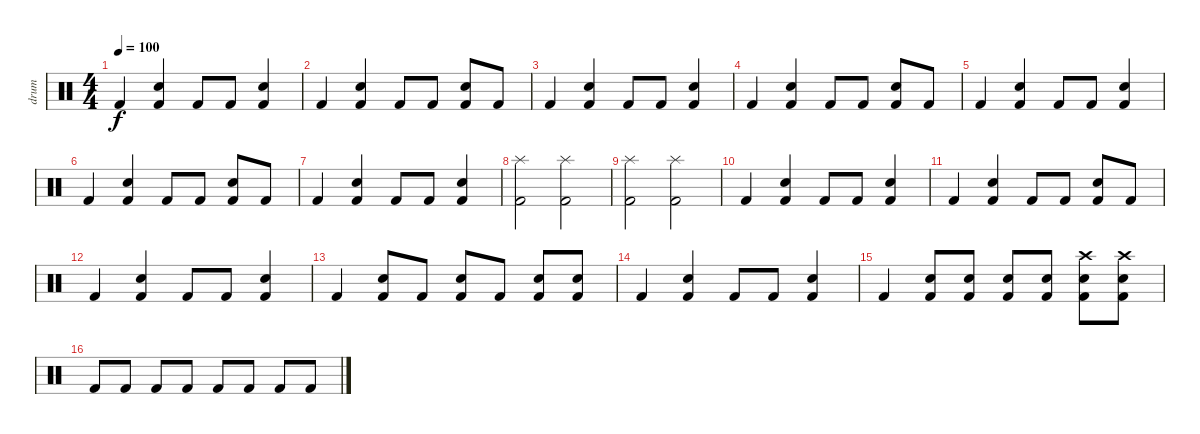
\track ("drum" "drum") {instrument percussion}
\staff {score}
\articulation defaults
\ts (4 4)
\tempo 100
\clef neutral
\ks c "Kick (hit) 2".4{dy f}
("Electric Snare (hit)" "Kick (hit) 2").4 "Kick (hit) 2".8 "Kick (hit) 2".8 ("Electric Snare (hit)" "Kick (hit) 2").4 |
"Kick (hit) 2".4 ("Electric Snare (hit)" "Kick (hit) 2").4 "Kick (hit) 2".8 "Kick (hit) 2".8 ("Electric Snare (hit)" "Kick (hit) 2").8 "Kick (hit) 2".8 |
"Kick (hit) 2".4 ("Electric Snare (hit)" "Kick (hit) 2").4 "Kick (hit) 2".8 "Kick (hit) 2".8 ("Electric Snare (hit)" "Kick (hit) 2").4 |
"Kick (hit) 2".4 ("Electric Snare (hit)" "Kick (hit) 2").4 "Kick (hit) 2".8 "Kick (hit) 2".8 ("Electric Snare (hit)" "Kick (hit) 2").8 "Kick (hit) 2".8 |
"Kick (hit) 2".4 ("Electric Snare (hit)" "Kick (hit) 2").4 "Kick (hit) 2".8 "Kick (hit) 2".8 ("Electric Snare (hit)" "Kick (hit) 2").4 |
"Kick (hit) 2".4 ("Electric Snare (hit)" "Kick (hit) 2").4 "Kick (hit) 2".8 "Kick (hit) 2".8 ("Electric Snare (hit)" "Kick (hit) 2").8 "Kick (hit) 2".8 |
"Kick (hit) 2".4 ("Electric Snare (hit)" "Kick (hit) 2").4 "Kick (hit) 2".8 "Kick (hit) 2".8 ("Electric Snare (hit)" "Kick (hit) 2").4 |
("Splash (hit)" "Kick (hit) 2").2 ("Splash (hit)" "Kick (hit) 2").2 |
("Splash (hit)" "Kick (hit) 2").2 ("Splash (hit)" "Kick (hit) 2").2 |
"Kick (hit) 2".4 ("Electric Snare (hit)" "Kick (hit) 2").4 "Kick (hit) 2".8 "Kick (hit) 2".8 ("Electric Snare (hit)" "Kick (hit) 2").4 |
"Kick (hit) 2".4 ("Electric Snare (hit)" "Kick (hit) 2").4 "Kick (hit) 2".8 "Kick (hit) 2".8 ("Electric Snare (hit)" "Kick (hit) 2").8 "Kick (hit) 2".8 |
"Kick (hit) 2".4 ("Electric Snare (hit)" "Kick (hit) 2").4 "Kick (hit) 2".8 "Kick (hit) 2".8 ("Electric Snare (hit)" "Kick (hit) 2").4 |
"Kick (hit) 2".4 ("Electric Snare (hit)" "Kick (hit) 2").8 "Kick (hit) 2".8 ("Electric Snare (hit)" "Kick (hit) 2").8 "Kick (hit) 2".8 ("Electric Snare (hit)" "Kick (hit) 2").8 ("Electric Snare (hit)" "Kick (hit) 2").8 |
"Kick (hit) 2".4 ("Electric Snare (hit)" "Kick (hit) 2").4 "Kick (hit) 2".8 "Kick (hit) 2".8 ("Electric Snare (hit)" "Kick (hit) 2").4 |
"Kick (hit) 2".4 ("Electric Snare (hit)" "Kick (hit) 2").8 ("Electric Snare (hit)" "Kick (hit) 2").8 ("Electric Snare (hit)" "Kick (hit) 2").8 ("Electric Snare (hit)" "Kick (hit) 2").8 ("Crash high (hit)" "Electric Snare (hit)" "Kick (hit) 2").8 ("Crash high (hit)" "Electric Snare (hit)" "Kick (hit) 2").8 |
"Kick (hit) 2".8 "Kick (hit) 2".8 "Kick (hit) 2".8 "Kick (hit) 2".8 "Kick (hit) 2".8 "Kick (hit) 2".8 "Kick (hit) 2".8 "Kick (hit) 2".8
